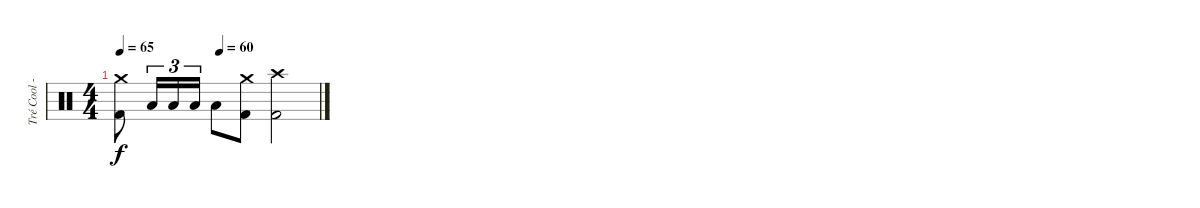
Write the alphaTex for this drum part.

\track ("Tré Cool - Drums" "Tré Cool -") {instrument percussion}
\staff {score}
\articulation defaults
\ts (4 4)
\tempo 65
\tempo (60 0.5)
\clef neutral
\ks c
("Crash medium (hit)" "Kick (hit) 2").8{dy f} "Low Tom (hit)".16{tu (3 2)} "Low Tom (hit)".16{tu (3 2)} "Low Tom (hit)".16{tu (3 2)} "Low Tom (hit)".8 ("Crash medium (hit)" "Kick (hit) 2").8 ("Crash high (hit)" "Kick (hit) 2").2
